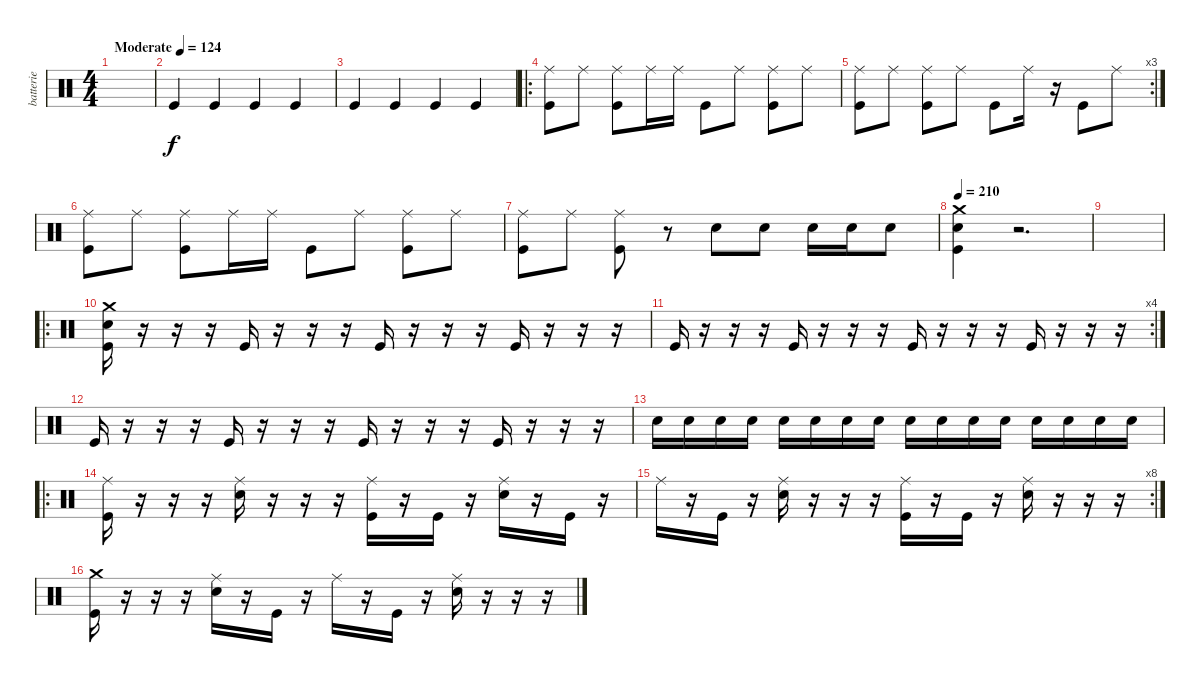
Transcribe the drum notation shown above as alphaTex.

\track ("batterie " "batterie ") {instrument percussion}
\staff {score}
\articulation defaults
\ts (4 4)
\tempo (124 "Moderate")
\clef neutral
\ks c
|
"Kick (hit)".4 "Kick (hit)".4 "Kick (hit)".4 "Kick (hit)".4 |
"Kick (hit)".4 "Kick (hit)".4 "Kick (hit)".4 "Kick (hit)".4 |
\ro
("Ride (middle)" "Kick (hit)").8 "Ride (middle)".8 ("Ride (middle)" "Kick (hit)").8 "Ride (middle)".16 "Ride (middle)".16 "Kick (hit)".8 "Ride (middle)".8 ("Ride (middle)" "Kick (hit)").8 "Ride (middle)".8 |
\rc 3
("Ride (middle)" "Kick (hit)").8 "Ride (middle)".8 ("Ride (middle)" "Kick (hit)").8 "Ride (middle)".8 "Kick (hit)".8 "Ride (middle)".16 r.16 "Kick (hit)".8 "Ride (middle)".8 |
("Ride (middle)" "Kick (hit)").8 "Ride (middle)".8 ("Ride (middle)" "Kick (hit)").8 "Ride (middle)".16 "Ride (middle)".16 "Kick (hit)".8 "Ride (middle)".8 ("Ride (middle)" "Kick (hit)").8 "Ride (middle)".8 |
("Ride (middle)" "Kick (hit)").8 "Ride (middle)".8 ("Ride (middle)" "Kick (hit)").8 r.8 "Snare (hit) 2".8 "Snare (hit) 2".8 "Snare (hit) 2".16 "Snare (hit) 2".16 "Snare (hit) 2".8 |
\tempo 210
("Crash medium (hit)" "Snare (hit) 2" "Kick (hit)").4 r.2{d} |
|
\ro
("Crash medium (hit)" "Snare (hit) 2" "Kick (hit)").16 r.16 r.16 r.16 "Kick (hit)".16 r.16 r.16 r.16 "Kick (hit)".16 r.16 r.16 r.16 "Kick (hit)".16 r.16 r.16 r.16 |
\rc 4 "Kick (hit)".16
r.16 r.16 r.16 "Kick (hit)".16 r.16 r.16 r.16 "Kick (hit)".16 r.16 r.16 r.16 "Kick (hit)".16 r.16 r.16 r.16 |
"Kick (hit)".16 r.16 r.16 r.16 "Kick (hit)".16 r.16 r.16 r.16 "Kick (hit)".16 r.16 r.16 r.16 "Kick (hit)".16 r.16 r.16 r.16 |
"Snare (hit) 2".16 "Snare (hit) 2".16 "Snare (hit) 2".16 "Snare (hit) 2".16 "Snare (hit) 2".16 "Snare (hit) 2".16 "Snare (hit) 2".16 "Snare (hit) 2".16 "Snare (hit) 2".16 "Snare (hit) 2".16 "Snare (hit) 2".16 "Snare (hit) 2".16 "Snare (hit) 2".16 "Snare (hit) 2".16 "Snare (hit) 2".16 "Snare (hit) 2".16 |
\ro
("Ride (middle)" "Kick (hit)").16 r.16 r.16 r.16 ("Ride (middle)" "Snare (hit) 2").16 r.16 r.16 r.16 ("Ride (middle)" "Kick (hit)").16 r.16 "Kick (hit)".16 r.16 ("Ride (middle)" "Snare (hit) 2").16 r.16 "Kick (hit)".16 r.16 |
\rc 8 "Ride (middle)".16
r.16 "Kick (hit)".16 r.16 ("Ride (middle)" "Snare (hit) 2").16 r.16 r.16 r.16 ("Ride (middle)" "Kick (hit)").16 r.16 "Kick (hit)".16 r.16 ("Ride (middle)" "Snare (hit) 2").16 r.16 r.16 r.16 |
("Crash medium (hit)" "Kick (hit)").16 r.16 r.16 r.16 ("Ride (middle)" "Snare (hit) 2").16 r.16 "Kick (hit)".16 r.16 "Ride (middle)".16 r.16 "Kick (hit)".16 r.16 ("Ride (middle)" "Snare (hit) 2").16 r.16 r.16 r.16
